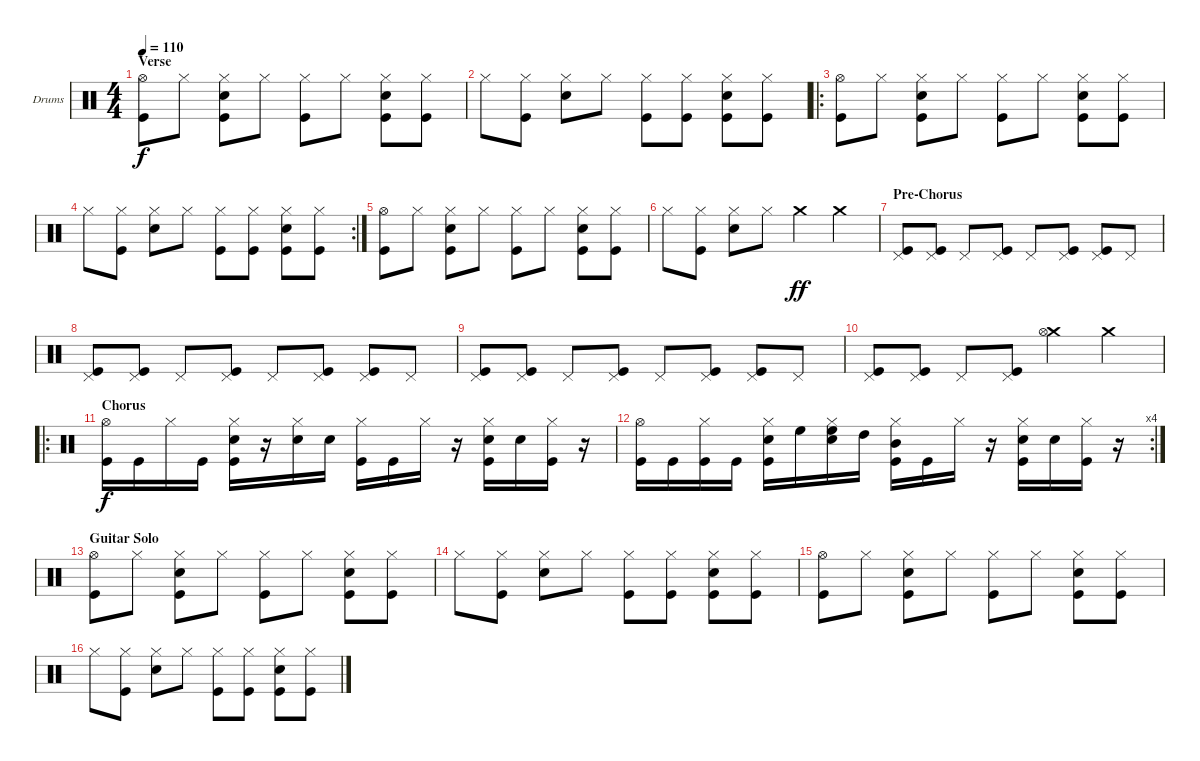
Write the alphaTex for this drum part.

\defaultSystemsLayout 4
\bracketExtendMode groupsimilarinstruments
\firstSystemTrackNameOrientation horizontal
\otherSystemsTrackNameOrientation horizontal
\track ("Drumkit" "Drums") {instrument percussion}
\staff {score}
\articulation defaults
\ts (4 4)
\section ("" "Verse")
\tempo 110
\clef neutral
\ks c
("Kick (hit)" "Hi-Hat (open)").8{dy f} "Hi-Hat (closed)".8 ("Kick (hit)" "Hi-Hat (closed)" "Snare (hit) 2").8 "Hi-Hat (closed)".8 ("Kick (hit)" "Hi-Hat (closed)").8 "Hi-Hat (closed)".8 ("Kick (hit)" "Hi-Hat (closed)" "Snare (hit) 2").8 ("Kick (hit)" "Hi-Hat (closed)").8 |
"Hi-Hat (closed)".8 ("Kick (hit)" "Hi-Hat (closed)").8 ("Hi-Hat (closed)" "Snare (hit) 2").8 "Hi-Hat (closed)".8 ("Kick (hit)" "Hi-Hat (closed)").8 ("Kick (hit)" "Hi-Hat (closed)").8 ("Kick (hit)" "Hi-Hat (closed)" "Snare (hit) 2").8 ("Kick (hit)" "Hi-Hat (closed)").8 |
\ro
("Kick (hit)" "Hi-Hat (open)").8 "Hi-Hat (closed)".8 ("Kick (hit)" "Hi-Hat (closed)" "Snare (hit) 2").8 "Hi-Hat (closed)".8 ("Kick (hit)" "Hi-Hat (closed)").8 "Hi-Hat (closed)".8 ("Kick (hit)" "Hi-Hat (closed)" "Snare (hit) 2").8 ("Kick (hit)" "Hi-Hat (closed)").8 |
\rc 2 "Hi-Hat (closed)".8
("Kick (hit)" "Hi-Hat (closed)").8 ("Hi-Hat (closed)" "Snare (hit) 2").8 "Hi-Hat (closed)".8 ("Kick (hit)" "Hi-Hat (closed)").8 ("Kick (hit)" "Hi-Hat (closed)").8 ("Kick (hit)" "Hi-Hat (closed)" "Snare (hit) 2").8 ("Kick (hit)" "Hi-Hat (closed)").8 |
("Kick (hit)" "Hi-Hat (open)").8 "Hi-Hat (closed)".8 ("Kick (hit)" "Hi-Hat (closed)" "Snare (hit) 2").8 "Hi-Hat (closed)".8 ("Kick (hit)" "Hi-Hat (closed)").8 "Hi-Hat (closed)".8 ("Kick (hit)" "Hi-Hat (closed)" "Snare (hit) 2").8 ("Kick (hit)" "Hi-Hat (closed)").8 |
"Hi-Hat (closed)".8 ("Kick (hit)" "Hi-Hat (closed)").8 ("Hi-Hat (closed)" "Snare (hit) 2").8 "Hi-Hat (closed)".8 "Crash medium (hit)".4{dy ff} "Crash medium (hit)".4 |
\section ("" "Pre-Chorus")
("Kick (hit)" "Pedal Hi-Hat (hit)").8 ("Kick (hit)" "Pedal Hi-Hat (hit)").8 "Pedal Hi-Hat (hit)".8 ("Kick (hit)" "Pedal Hi-Hat (hit)").8 "Pedal Hi-Hat (hit)".8 ("Kick (hit)" "Pedal Hi-Hat (hit)").8 ("Kick (hit)" "Pedal Hi-Hat (hit)").8 "Pedal Hi-Hat (hit)".8 |
("Kick (hit)" "Pedal Hi-Hat (hit)").8 ("Kick (hit)" "Pedal Hi-Hat (hit)").8 "Pedal Hi-Hat (hit)".8 ("Kick (hit)" "Pedal Hi-Hat (hit)").8 "Pedal Hi-Hat (hit)".8 ("Kick (hit)" "Pedal Hi-Hat (hit)").8 ("Kick (hit)" "Pedal Hi-Hat (hit)").8 "Pedal Hi-Hat (hit)".8 |
("Kick (hit)" "Pedal Hi-Hat (hit)").8 ("Kick (hit)" "Pedal Hi-Hat (hit)").8 "Pedal Hi-Hat (hit)".8 ("Kick (hit)" "Pedal Hi-Hat (hit)").8 "Pedal Hi-Hat (hit)".8 ("Kick (hit)" "Pedal Hi-Hat (hit)").8 ("Kick (hit)" "Pedal Hi-Hat (hit)").8 "Pedal Hi-Hat (hit)".8 |
("Kick (hit)" "Pedal Hi-Hat (hit)").8 ("Kick (hit)" "Pedal Hi-Hat (hit)").8 "Pedal Hi-Hat (hit)".8 ("Kick (hit)" "Pedal Hi-Hat (hit)").8 ("Crash medium (hit)" "Hi-Hat (open)").4 "Crash medium (hit)".4 |
\ro
\section ("" "Chorus")
("Kick (hit)" "Hi-Hat (open)").16{dy f} "Kick (hit)".16 "Hi-Hat (closed)".16 "Kick (hit)".16 ("Kick (hit)" "Hi-Hat (closed)" "Snare (hit) 2").16 r.16 ("Hi-Hat (closed)" "Snare (hit) 2").16 "Snare (hit) 2".16 ("Kick (hit)" "Hi-Hat (closed)").16 "Kick (hit)".16 "Hi-Hat (closed)".16 r.16 ("Kick (hit)" "Hi-Hat (closed)" "Snare (hit) 2").16 "Snare (hit) 2".16 ("Kick (hit)" "Hi-Hat (closed)").16 r.16 |
\rc 4
("Kick (hit)" "Hi-Hat (open)").16 "Kick (hit)".16 ("Hi-Hat (closed)" "Kick (hit)").16 "Kick (hit)".16 ("Kick (hit)" "Hi-Hat (closed)" "Snare (hit) 2").16 "High Floor Tom (hit)".16 ("Hi-Hat (closed)" "Snare (hit) 2" "High Floor Tom (hit)").16 "High Tom (hit)".16 ("Kick (hit)" "Hi-Hat (closed)" "Mid Tom (hit)").16 "Kick (hit)".16 "Hi-Hat (closed)".16 r.16 ("Kick (hit)" "Hi-Hat (closed)" "Snare (hit) 2").16 "Snare (hit) 2".16 ("Kick (hit)" "Hi-Hat (closed)").16 r.16 |
\section ("" "Guitar Solo")
("Kick (hit)" "Hi-Hat (open)").8 "Hi-Hat (closed)".8 ("Kick (hit)" "Hi-Hat (closed)" "Snare (hit) 2").8 "Hi-Hat (closed)".8 ("Kick (hit)" "Hi-Hat (closed)").8 "Hi-Hat (closed)".8 ("Kick (hit)" "Hi-Hat (closed)" "Snare (hit) 2").8 ("Kick (hit)" "Hi-Hat (closed)").8 |
"Hi-Hat (closed)".8 ("Kick (hit)" "Hi-Hat (closed)").8 ("Hi-Hat (closed)" "Snare (hit) 2").8 "Hi-Hat (closed)".8 ("Kick (hit)" "Hi-Hat (closed)").8 ("Kick (hit)" "Hi-Hat (closed)").8 ("Kick (hit)" "Hi-Hat (closed)" "Snare (hit) 2").8 ("Kick (hit)" "Hi-Hat (closed)").8 |
("Kick (hit)" "Hi-Hat (open)").8 "Hi-Hat (closed)".8 ("Kick (hit)" "Hi-Hat (closed)" "Snare (hit) 2").8 "Hi-Hat (closed)".8 ("Kick (hit)" "Hi-Hat (closed)").8 "Hi-Hat (closed)".8 ("Kick (hit)" "Hi-Hat (closed)" "Snare (hit) 2").8 ("Kick (hit)" "Hi-Hat (closed)").8 |
"Hi-Hat (closed)".8 ("Kick (hit)" "Hi-Hat (closed)").8 ("Hi-Hat (closed)" "Snare (hit) 2").8 "Hi-Hat (closed)".8 ("Kick (hit)" "Hi-Hat (closed)").8 ("Kick (hit)" "Hi-Hat (closed)").8 ("Kick (hit)" "Hi-Hat (closed)" "Snare (hit) 2").8 ("Kick (hit)" "Hi-Hat (closed)").8
